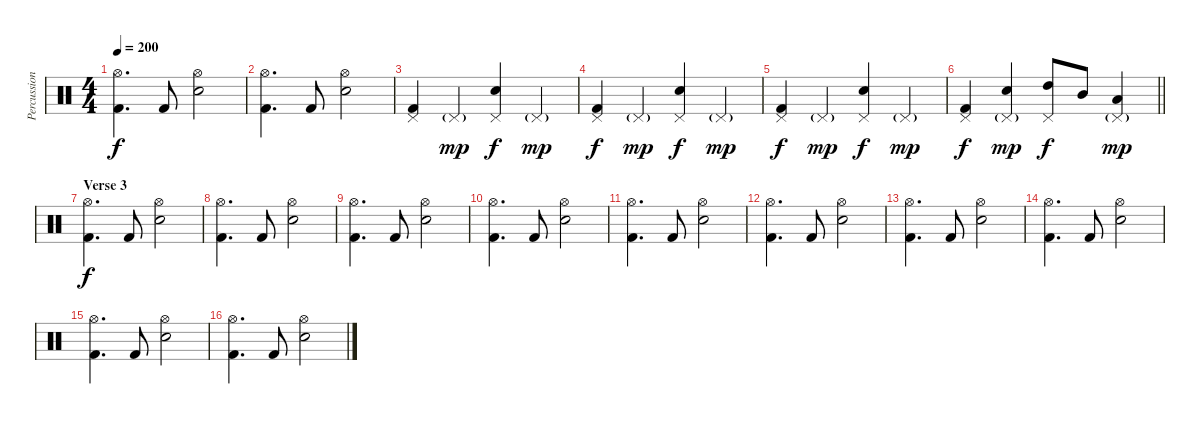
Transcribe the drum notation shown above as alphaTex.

\track ("Percussion" "Percussion") {instrument percussion}
\staff {score}
\articulation defaults
\ts (4 4)
\tempo 200
\clef neutral
\ks c
("Hi-Hat (open)" "Kick (hit) 2").4{d dy f} "Kick (hit) 2".8 ("Hi-Hat (open)" "Electric Snare (hit)").2 |
("Hi-Hat (open)" "Kick (hit) 2").4{d} "Kick (hit) 2".8 ("Hi-Hat (open)" "Electric Snare (hit)").2 |
("Pedal Hi-Hat (hit)" "Kick (hit) 2").4 "Pedal Hi-Hat (hit)"{g}.4{dy mp} ("Pedal Hi-Hat (hit)" "Snare (hit) 2").4{dy f} "Pedal Hi-Hat (hit)"{g}.4{dy mp} |
("Pedal Hi-Hat (hit)" "Kick (hit) 2").4{dy f} "Pedal Hi-Hat (hit)"{g}.4{dy mp} ("Pedal Hi-Hat (hit)" "Snare (hit) 2").4{dy f} "Pedal Hi-Hat (hit)"{g}.4{dy mp} |
("Pedal Hi-Hat (hit)" "Kick (hit) 2").4{dy f} "Pedal Hi-Hat (hit)"{g}.4{dy mp} ("Pedal Hi-Hat (hit)" "Snare (hit) 2").4{dy f} "Pedal Hi-Hat (hit)"{g}.4{dy mp} |
\barLineRight lightlight
("Pedal Hi-Hat (hit)" "Kick (hit) 2").4{dy f} ("Pedal Hi-Hat (hit)"{g} "Snare (hit) 2").4{dy mp} ("Pedal Hi-Hat (hit)" "High Tom (hit)").8{dy f} "Mid Tom (hit)".8 ("Pedal Hi-Hat (hit)"{g} "Low Tom (hit)").4{dy mp} |
\section ("" "Verse 3")
("Hi-Hat (open)" "Kick (hit) 2").4{d dy f} "Kick (hit) 2".8 ("Hi-Hat (open)" "Electric Snare (hit)").2 |
("Hi-Hat (open)" "Kick (hit) 2").4{d} "Kick (hit) 2".8 ("Hi-Hat (open)" "Electric Snare (hit)").2 |
("Hi-Hat (open)" "Kick (hit) 2").4{d} "Kick (hit) 2".8 ("Hi-Hat (open)" "Electric Snare (hit)").2 |
("Hi-Hat (open)" "Kick (hit) 2").4{d} "Kick (hit) 2".8 ("Hi-Hat (open)" "Electric Snare (hit)").2 |
("Hi-Hat (open)" "Kick (hit) 2").4{d} "Kick (hit) 2".8 ("Hi-Hat (open)" "Electric Snare (hit)").2 |
("Hi-Hat (open)" "Kick (hit) 2").4{d} "Kick (hit) 2".8 ("Hi-Hat (open)" "Electric Snare (hit)").2 |
("Hi-Hat (open)" "Kick (hit) 2").4{d} "Kick (hit) 2".8 ("Hi-Hat (open)" "Electric Snare (hit)").2 |
("Hi-Hat (open)" "Kick (hit) 2").4{d} "Kick (hit) 2".8 ("Hi-Hat (open)" "Electric Snare (hit)").2 |
("Hi-Hat (open)" "Kick (hit) 2").4{d} "Kick (hit) 2".8 ("Hi-Hat (open)" "Electric Snare (hit)").2 |
("Hi-Hat (open)" "Kick (hit) 2").4{d} "Kick (hit) 2".8 ("Hi-Hat (open)" "Electric Snare (hit)").2
